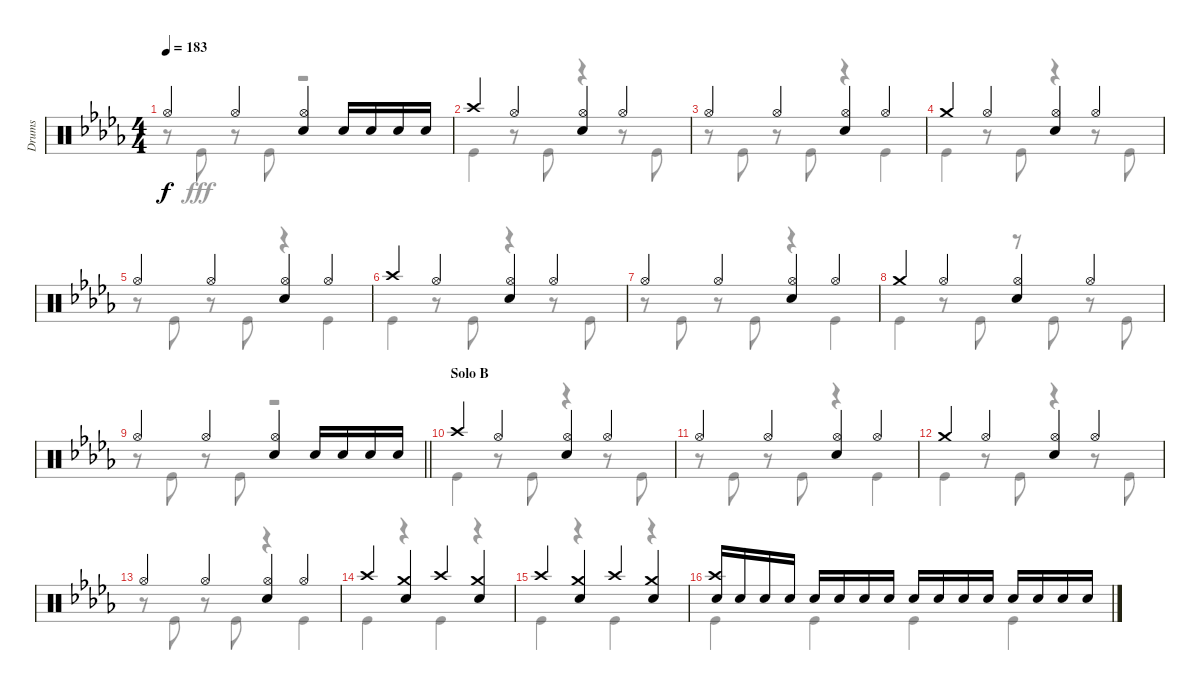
\track ("Drums" "Drums") {instrument percussion}
\staff {score}
\articulation defaults
\voice
\ts (4 4)
\tempo 183
\clef neutral
\ks db "Hi-Hat (open)".4{dy f} "Hi-Hat (open)".4
("Hi-Hat (open)" "Snare (hit) 2").4 "Snare (hit) 2".16 "Snare (hit) 2".16 "Snare (hit) 2".16 "Snare (hit) 2".16 |
"Crash high (hit)".4 "Hi-Hat (open)".4 ("Hi-Hat (open)" "Snare (hit) 2").4 "Hi-Hat (open)".4 |
"Hi-Hat (open)".4 "Hi-Hat (open)".4 ("Hi-Hat (open)" "Snare (hit) 2").4 "Hi-Hat (open)".4 |
"Crash medium (hit)".4 "Hi-Hat (open)".4 ("Hi-Hat (open)" "Snare (hit) 2").4 "Hi-Hat (open)".4 |
"Hi-Hat (open)".4 "Hi-Hat (open)".4 ("Hi-Hat (open)" "Snare (hit) 2").4 "Hi-Hat (open)".4 |
"Crash high (hit)".4 "Hi-Hat (open)".4 ("Hi-Hat (open)" "Snare (hit) 2").4 "Hi-Hat (open)".4 |
"Hi-Hat (open)".4 "Hi-Hat (open)".4 ("Hi-Hat (open)" "Snare (hit) 2").4 "Hi-Hat (open)".4 |
"Crash medium (hit)".4 "Hi-Hat (open)".4 ("Hi-Hat (open)" "Snare (hit) 2").4 "Hi-Hat (open)".4 |
\barLineRight lightlight "Hi-Hat (open)".4 "Hi-Hat (open)".4
("Hi-Hat (open)" "Snare (hit) 2").4 "Snare (hit) 2".16 "Snare (hit) 2".16 "Snare (hit) 2".16 "Snare (hit) 2".16 |
\section ("" "Solo B")
"Crash high (hit)".4 "Hi-Hat (open)".4 ("Hi-Hat (open)" "Snare (hit) 2").4 "Hi-Hat (open)".4 |
"Hi-Hat (open)".4 "Hi-Hat (open)".4 ("Hi-Hat (open)" "Snare (hit) 2").4 "Hi-Hat (open)".4 |
"Crash medium (hit)".4 "Hi-Hat (open)".4 ("Hi-Hat (open)" "Snare (hit) 2").4 "Hi-Hat (open)".4 |
"Hi-Hat (open)".4 "Hi-Hat (open)".4 ("Hi-Hat (open)" "Snare (hit) 2").4 "Hi-Hat (open)".4 |
"Crash high (hit)".4 ("Crash medium (hit)" "Snare (hit) 2").4 "Crash high (hit)".4 ("Crash medium (hit)" "Snare (hit) 2").4 |
"Crash high (hit)".4 ("Crash medium (hit)" "Snare (hit) 2").4 "Crash high (hit)".4 ("Crash medium (hit)" "Snare (hit) 2").4 |
("Crash high (hit)" "Snare (hit) 2").16 "Snare (hit) 2".16 "Snare (hit) 2".16 "Snare (hit) 2".16 "Snare (hit) 2".16 "Snare (hit) 2".16 "Snare (hit) 2".16 "Snare (hit) 2".16 "Snare (hit) 2".16 "Snare (hit) 2".16 "Snare (hit) 2".16 "Snare (hit) 2".16 "Snare (hit) 2".16 "Snare (hit) 2".16 "Snare (hit) 2".16 "Snare (hit) 2".16
\voice
\clef neutral
\ottava regular
\simile none
\ks db
r.8{dy fff} "Kick (hit)".8 r.8 "Kick (hit)".8 r.2 |
"Kick (hit)".4 r.8 "Kick (hit)".8 r.4 r.8 "Kick (hit)".8 |
r.8 "Kick (hit)".8 r.8 "Kick (hit)".8 r.4 "Kick (hit)".4 |
"Kick (hit)".4 r.8 "Kick (hit)".8 r.4 r.8 "Kick (hit)".8 |
r.8 "Kick (hit)".8 r.8 "Kick (hit)".8 r.4 "Kick (hit)".4 |
"Kick (hit)".4 r.8 "Kick (hit)".8 r.4 r.8 "Kick (hit)".8 |
r.8 "Kick (hit)".8 r.8 "Kick (hit)".8 r.4 "Kick (hit)".4 |
"Kick (hit)".4 r.8 "Kick (hit)".8 r.8 "Kick (hit)".8 r.8 "Kick (hit)".8 |
\barLineRight lightlight
r.8 "Kick (hit)".8 r.8 "Kick (hit)".8 r.2 |
"Kick (hit)".4 r.8 "Kick (hit)".8 r.4 r.8 "Kick (hit)".8 |
r.8 "Kick (hit)".8 r.8 "Kick (hit)".8 r.4 "Kick (hit)".4 |
"Kick (hit)".4 r.8 "Kick (hit)".8 r.4 r.8 "Kick (hit)".8 |
r.8 "Kick (hit)".8 r.8 "Kick (hit)".8 r.4 "Kick (hit)".4 |
"Kick (hit)".4 r.4 "Kick (hit)".4 r.4 |
"Kick (hit)".4 r.4 "Kick (hit)".4 r.4 |
"Kick (hit)".4 "Kick (hit)".4 "Kick (hit)".4 "Kick (hit)".4
